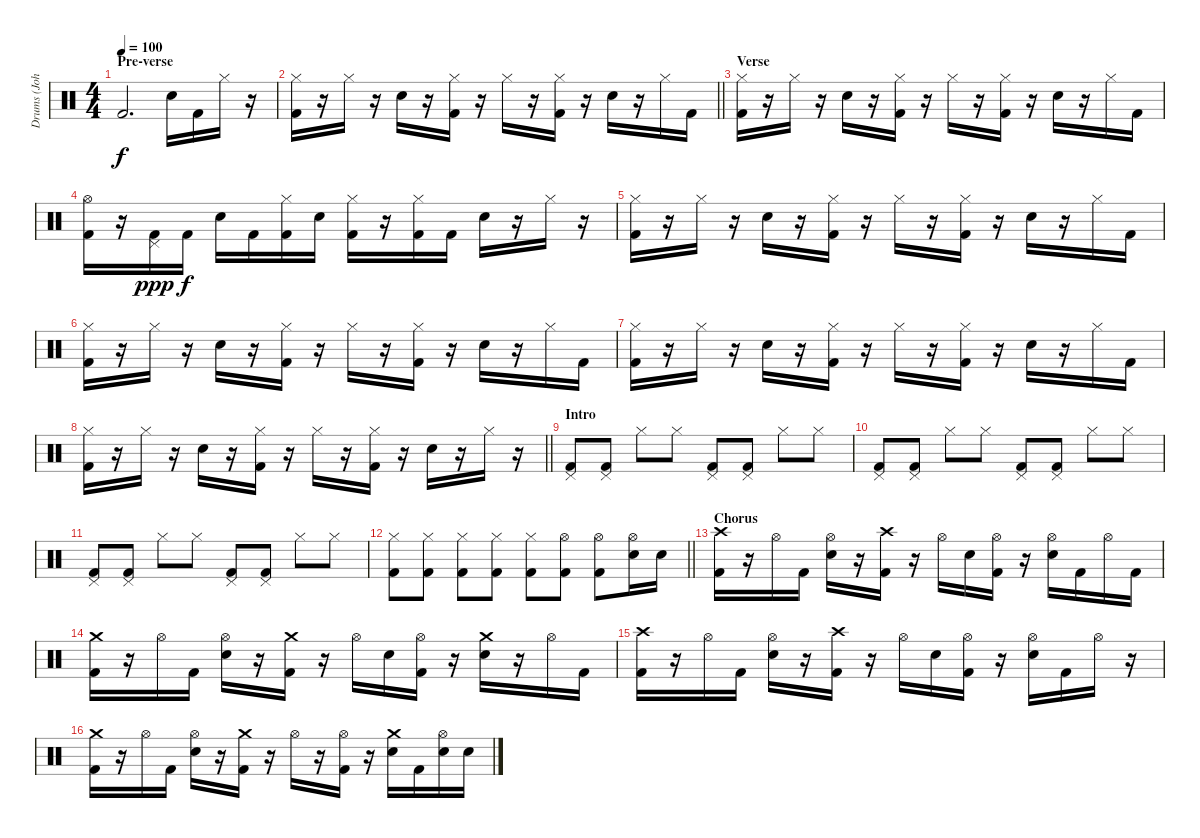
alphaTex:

\track ("Drums (John Otto)" "Drums (Joh") {instrument percussion}
\staff {score}
\articulation defaults
\ts (4 4)
\section ("" "Pre-verse")
\tempo 100
\clef neutral
\ks c "Kick (hit) 2".2{d dy f} "Electric Snare (hit)".16 "Kick (hit) 2".16 "Hi-Hat (closed)".16
r.16 |
\barLineRight lightlight
("Hi-Hat (closed)" "Kick (hit) 2").16 r.16 "Hi-Hat (closed)".16 r.16 "Electric Snare (hit)".16 r.16 ("Hi-Hat (closed)" "Kick (hit) 2").16 r.16 "Hi-Hat (closed)".16 r.16 ("Hi-Hat (closed)" "Kick (hit) 2").16 r.16 "Electric Snare (hit)".16 r.16 "Hi-Hat (closed)".16 "Kick (hit) 2".16 |
\section ("" "Verse")
("Hi-Hat (closed)" "Kick (hit) 2").16 r.16 "Hi-Hat (closed)".16 r.16 "Electric Snare (hit)".16 r.16 ("Hi-Hat (closed)" "Kick (hit) 2").16 r.16 "Hi-Hat (closed)".16 r.16 ("Hi-Hat (closed)" "Kick (hit) 2").16 r.16 "Electric Snare (hit)".16 r.16 "Hi-Hat (closed)".16 "Kick (hit) 2".16 |
("Hi-Hat (open)" "Kick (hit) 2").16 r.16 ("Pedal Hi-Hat (hit)" "Kick (hit) 2").16{dy ppp} "Kick (hit) 2".16{dy f} "Electric Snare (hit)".16 "Kick (hit) 2".16 ("Hi-Hat (closed)" "Kick (hit) 2").16 "Electric Snare (hit)".16 ("Hi-Hat (closed)" "Kick (hit) 2").16 r.16 ("Hi-Hat (closed)" "Kick (hit) 2").16 "Kick (hit) 2".16 "Electric Snare (hit)".16 r.16 "Hi-Hat (closed)".16 r.16 |
("Hi-Hat (closed)" "Kick (hit) 2").16 r.16 "Hi-Hat (closed)".16 r.16 "Electric Snare (hit)".16 r.16 ("Hi-Hat (closed)" "Kick (hit) 2").16 r.16 "Hi-Hat (closed)".16 r.16 ("Hi-Hat (closed)" "Kick (hit) 2").16 r.16 "Electric Snare (hit)".16 r.16 "Hi-Hat (closed)".16 "Kick (hit) 2".16 |
("Hi-Hat (closed)" "Kick (hit) 2").16 r.16 "Hi-Hat (closed)".16 r.16 "Electric Snare (hit)".16 r.16 ("Hi-Hat (closed)" "Kick (hit) 2").16 r.16 "Hi-Hat (closed)".16 r.16 ("Hi-Hat (closed)" "Kick (hit) 2").16 r.16 "Electric Snare (hit)".16 r.16 "Hi-Hat (closed)".16 "Kick (hit) 2".16 |
("Hi-Hat (closed)" "Kick (hit) 2").16 r.16 "Hi-Hat (closed)".16 r.16 "Electric Snare (hit)".16 r.16 ("Hi-Hat (closed)" "Kick (hit) 2").16 r.16 "Hi-Hat (closed)".16 r.16 ("Hi-Hat (closed)" "Kick (hit) 2").16 r.16 "Electric Snare (hit)".16 r.16 "Hi-Hat (closed)".16 "Kick (hit) 2".16 |
\barLineRight lightlight
("Hi-Hat (closed)" "Kick (hit) 2").16 r.16 "Hi-Hat (closed)".16 r.16 "Electric Snare (hit)".16 r.16 ("Hi-Hat (closed)" "Kick (hit) 2").16 r.16 "Hi-Hat (closed)".16 r.16 ("Hi-Hat (closed)" "Kick (hit) 2").16 r.16 "Electric Snare (hit)".16 r.16 "Hi-Hat (closed)".16 r.16 |
\section ("" "Intro")
("Pedal Hi-Hat (hit)" "Kick (hit) 2").8 ("Pedal Hi-Hat (hit)" "Kick (hit) 2").8 "Hi-Hat (closed)".8 "Hi-Hat (closed)".8 ("Pedal Hi-Hat (hit)" "Kick (hit) 2").8 ("Pedal Hi-Hat (hit)" "Kick (hit) 2").8 "Hi-Hat (closed)".8 "Hi-Hat (closed)".8 |
("Pedal Hi-Hat (hit)" "Kick (hit) 2").8 ("Pedal Hi-Hat (hit)" "Kick (hit) 2").8 "Hi-Hat (closed)".8 "Hi-Hat (closed)".8 ("Pedal Hi-Hat (hit)" "Kick (hit) 2").8 ("Pedal Hi-Hat (hit)" "Kick (hit) 2").8 "Hi-Hat (closed)".8 "Hi-Hat (closed)".8 |
("Pedal Hi-Hat (hit)" "Kick (hit) 2").8 ("Pedal Hi-Hat (hit)" "Kick (hit) 2").8 "Hi-Hat (closed)".8 "Hi-Hat (closed)".8 ("Pedal Hi-Hat (hit)" "Kick (hit) 2").8 ("Pedal Hi-Hat (hit)" "Kick (hit) 2").8 "Hi-Hat (closed)".8 "Hi-Hat (closed)".8 |
\barLineRight lightlight
("Hi-Hat (closed)" "Kick (hit) 2").8 ("Hi-Hat (closed)" "Kick (hit) 2").8 ("Hi-Hat (closed)" "Kick (hit) 2").8 ("Hi-Hat (closed)" "Kick (hit) 2").8 ("Hi-Hat (closed)" "Kick (hit) 2").8 ("Hi-Hat (open)" "Kick (hit) 2").8 ("Hi-Hat (open)" "Kick (hit) 2").8 ("Hi-Hat (open)" "Electric Snare (hit)").16 "Electric Snare (hit)".16 |
\section ("" "Chorus")
("Crash high (hit)" "Kick (hit) 2").16 r.16 "Hi-Hat (open)".16 "Kick (hit) 2".16 ("Hi-Hat (open)" "Electric Snare (hit)").16 r.16 ("Crash high (hit)" "Kick (hit) 2").16 r.16 "Hi-Hat (open)".16 "Electric Snare (hit)".16 ("Hi-Hat (open)" "Kick (hit) 2").16 r.16 ("Hi-Hat (open)" "Electric Snare (hit)").16 "Kick (hit) 2".16 "Hi-Hat (open)".16 "Kick (hit) 2".16 |
("Crash medium (hit)" "Kick (hit) 2").16 r.16 "Hi-Hat (open)".16 "Kick (hit) 2".16 ("Hi-Hat (open)" "Electric Snare (hit)").16 r.16 ("Crash medium (hit)" "Kick (hit) 2").16 r.16 "Hi-Hat (open)".16 "Electric Snare (hit)".16 ("Hi-Hat (open)" "Kick (hit) 2").16 r.16 ("Crash medium (hit)" "Electric Snare (hit)").16 r.16 "Hi-Hat (open)".16 "Kick (hit) 2".16 |
("Crash high (hit)" "Kick (hit) 2").16 r.16 "Hi-Hat (open)".16 "Kick (hit) 2".16 ("Hi-Hat (open)" "Electric Snare (hit)").16 r.16 ("Crash high (hit)" "Kick (hit) 2").16 r.16 "Hi-Hat (open)".16 "Electric Snare (hit)".16 ("Hi-Hat (open)" "Kick (hit) 2").16 r.16 ("Hi-Hat (open)" "Electric Snare (hit)").16 "Kick (hit) 2".16 "Hi-Hat (open)".16 r.16 |
("Crash medium (hit)" "Kick (hit) 2").16 r.16 "Hi-Hat (open)".16 "Kick (hit) 2".16 ("Hi-Hat (open)" "Electric Snare (hit)").16 r.16 ("Crash medium (hit)" "Kick (hit) 2").16 r.16 "Hi-Hat (open)".16 r.16 ("Hi-Hat (open)" "Kick (hit) 2").16 r.16 ("Crash medium (hit)" "Electric Snare (hit)").16 "Kick (hit) 2".16 ("Hi-Hat (open)" "Electric Snare (hit)").16 "Electric Snare (hit)".16
